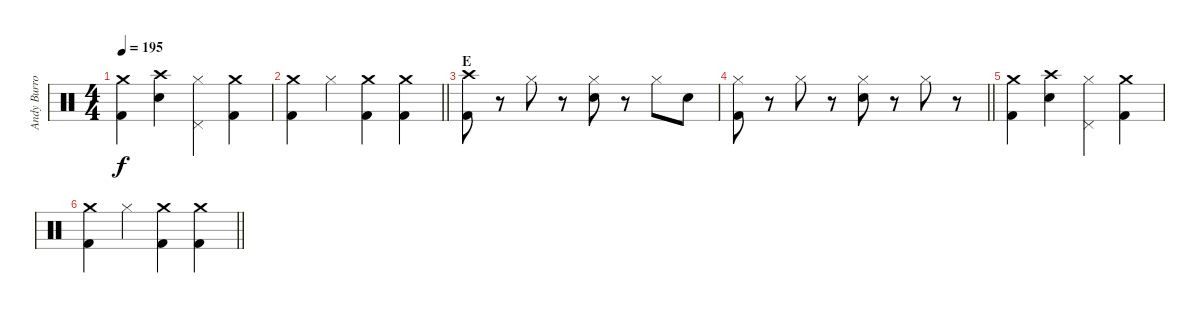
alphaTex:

\track ("Andy Burrows (drums)" "Andy Burro") {instrument percussion}
\staff {score}
\articulation defaults
\ts (4 4)
\section ("" "")
\tempo 195
\clef neutral
\ks c
("Crash medium (hit)" "Kick (hit) 2").4{dy f} ("Crash high (hit)" "Electric Snare (hit)").4 ("Pedal Hi-Hat (hit)" "Hi-Hat (closed)").4 ("Crash medium (hit)" "Kick (hit) 2").4 |
\barLineRight lightlight
("Crash medium (hit)" "Kick (hit) 2").4 "Hi-Hat (closed)".4 ("Crash medium (hit)" "Kick (hit) 2").4 ("Crash medium (hit)" "Kick (hit) 2").4 |
\section ("" "E")
("Crash high (hit)" "Kick (hit) 2").8 r.8 "Hi-Hat (closed)".8 r.8 ("Hi-Hat (closed)" "Electric Snare (hit)").8 r.8 "Hi-Hat (closed)".8 "Electric Snare (hit)".8 |
\barLineRight lightlight
("Hi-Hat (closed)" "Kick (hit) 2").8 r.8 "Hi-Hat (closed)".8 r.8 ("Hi-Hat (closed)" "Electric Snare (hit)").8 r.8 "Hi-Hat (closed)".8 r.8 |
\section ("" "")
("Crash medium (hit)" "Kick (hit) 2").4 ("Crash high (hit)" "Electric Snare (hit)").4 ("Pedal Hi-Hat (hit)" "Hi-Hat (closed)").4 ("Crash medium (hit)" "Kick (hit) 2").4 |
\barLineRight lightlight
("Crash medium (hit)" "Kick (hit) 2").4 "Hi-Hat (closed)".4 ("Crash medium (hit)" "Kick (hit) 2").4 ("Crash medium (hit)" "Kick (hit) 2").4
